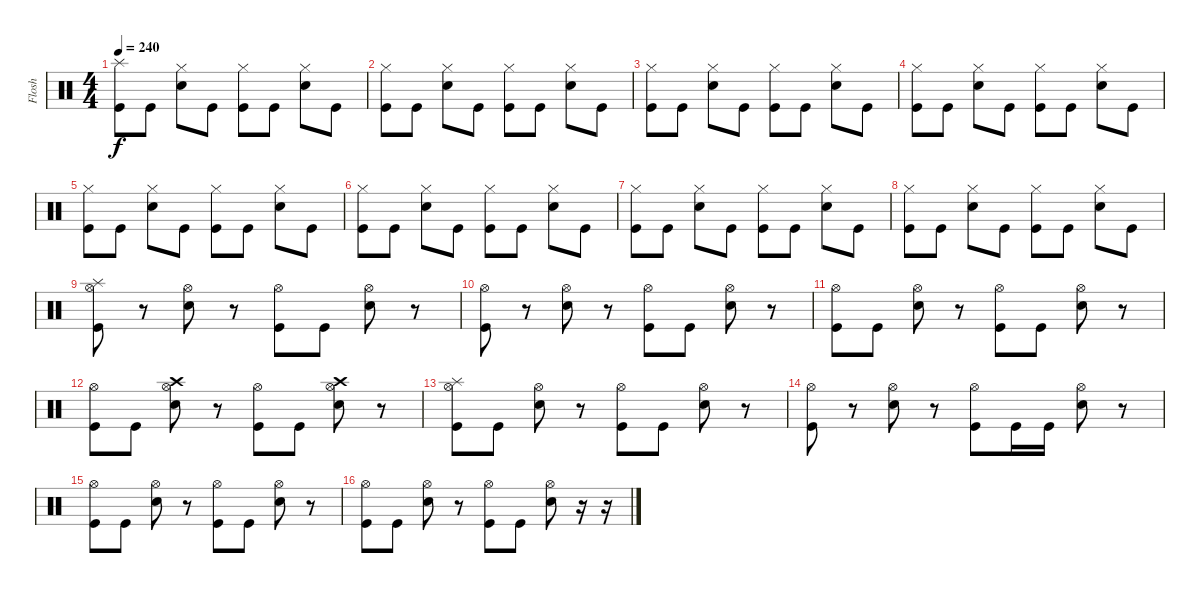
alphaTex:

\track ("Flosh" "Flosh") {instrument percussion}
\staff {score}
\articulation defaults
\ts (4 4)
\tempo 240
\clef neutral
\ks c
("Splash (hit)" "Kick (hit)").8{dy f} "Kick (hit)".8 ("Hi-Hat (closed)" "Snare (hit) 2").8 "Kick (hit)".8 ("Hi-Hat (closed)" "Kick (hit)").8 "Kick (hit)".8 ("Hi-Hat (closed)" "Snare (hit) 2").8 "Kick (hit)".8 |
("Hi-Hat (closed)" "Kick (hit)").8 "Kick (hit)".8 ("Hi-Hat (closed)" "Snare (hit) 2").8 "Kick (hit)".8 ("Hi-Hat (closed)" "Kick (hit)").8 "Kick (hit)".8 ("Hi-Hat (closed)" "Snare (hit) 2").8 "Kick (hit)".8 |
("Hi-Hat (closed)" "Kick (hit)").8 "Kick (hit)".8 ("Hi-Hat (closed)" "Snare (hit) 2").8 "Kick (hit)".8 ("Hi-Hat (closed)" "Kick (hit)").8 "Kick (hit)".8 ("Hi-Hat (closed)" "Snare (hit) 2").8 "Kick (hit)".8 |
("Hi-Hat (closed)" "Kick (hit)").8 "Kick (hit)".8 ("Hi-Hat (closed)" "Snare (hit) 2").8 "Kick (hit)".8 ("Hi-Hat (closed)" "Kick (hit)").8 "Kick (hit)".8 ("Hi-Hat (closed)" "Snare (hit) 2").8 "Kick (hit)".8 |
("Hi-Hat (closed)" "Kick (hit)").8 "Kick (hit)".8 ("Hi-Hat (closed)" "Snare (hit) 2").8 "Kick (hit)".8 ("Hi-Hat (closed)" "Kick (hit)").8 "Kick (hit)".8 ("Hi-Hat (closed)" "Snare (hit) 2").8 "Kick (hit)".8 |
("Hi-Hat (closed)" "Kick (hit)").8 "Kick (hit)".8 ("Hi-Hat (closed)" "Snare (hit) 2").8 "Kick (hit)".8 ("Hi-Hat (closed)" "Kick (hit)").8 "Kick (hit)".8 ("Hi-Hat (closed)" "Snare (hit) 2").8 "Kick (hit)".8 |
("Hi-Hat (closed)" "Kick (hit)").8 "Kick (hit)".8 ("Hi-Hat (closed)" "Snare (hit) 2").8 "Kick (hit)".8 ("Hi-Hat (closed)" "Kick (hit)").8 "Kick (hit)".8 ("Hi-Hat (closed)" "Snare (hit) 2").8 "Kick (hit)".8 |
("Hi-Hat (closed)" "Kick (hit)").8 "Kick (hit)".8 ("Hi-Hat (closed)" "Snare (hit) 2").8 "Kick (hit)".8 ("Hi-Hat (closed)" "Kick (hit)").8 "Kick (hit)".8 ("Hi-Hat (closed)" "Snare (hit) 2").8 "Kick (hit)".8 |
("Splash (hit)" "Hi-Hat (open)" "Kick (hit)").8 r.8 ("Hi-Hat (open)" "Snare (hit) 2").8 r.8 ("Hi-Hat (open)" "Kick (hit)").8 "Kick (hit)".8 ("Hi-Hat (open)" "Snare (hit) 2").8 r.8 |
("Hi-Hat (open)" "Kick (hit)").8 r.8 ("Hi-Hat (open)" "Snare (hit) 2").8 r.8 ("Hi-Hat (open)" "Kick (hit)").8 "Kick (hit)".8 ("Hi-Hat (open)" "Snare (hit) 2").8 r.8 |
("Hi-Hat (open)" "Kick (hit)").8 "Kick (hit)".8 ("Hi-Hat (open)" "Snare (hit) 2").8 r.8 ("Hi-Hat (open)" "Kick (hit)").8 "Kick (hit)".8 ("Hi-Hat (open)" "Snare (hit) 2").8 r.8 |
("Hi-Hat (open)" "Kick (hit)").8 "Kick (hit)".8 ("Crash high (hit)" "Hi-Hat (open)" "Snare (hit) 2").8 r.8 ("Hi-Hat (open)" "Kick (hit)").8 "Kick (hit)".8 ("Crash high (hit)" "Hi-Hat (open)" "Snare (hit) 2").8 r.8 |
("Splash (hit)" "Hi-Hat (open)" "Kick (hit)").8 "Kick (hit)".8 ("Hi-Hat (open)" "Snare (hit) 2").8 r.8 ("Hi-Hat (open)" "Kick (hit)").8 "Kick (hit)".8 ("Hi-Hat (open)" "Snare (hit) 2").8 r.8 |
("Hi-Hat (open)" "Kick (hit)").8 r.8 ("Hi-Hat (open)" "Snare (hit) 2").8 r.8 ("Hi-Hat (open)" "Kick (hit)").8 "Kick (hit)".16 "Kick (hit)".16 ("Hi-Hat (open)" "Snare (hit) 2").8 r.8 |
("Hi-Hat (open)" "Kick (hit)").8 "Kick (hit)".8 ("Hi-Hat (open)" "Snare (hit) 2").8 r.8 ("Hi-Hat (open)" "Kick (hit)").8 "Kick (hit)".8 ("Hi-Hat (open)" "Snare (hit) 2").8 r.8 |
("Hi-Hat (open)" "Kick (hit)").8 "Kick (hit)".8 ("Hi-Hat (open)" "Snare (hit) 2").8 r.8 ("Hi-Hat (open)" "Kick (hit)").8 "Kick (hit)".8 ("Hi-Hat (open)" "Snare (hit) 2").8 r.16 r.16
